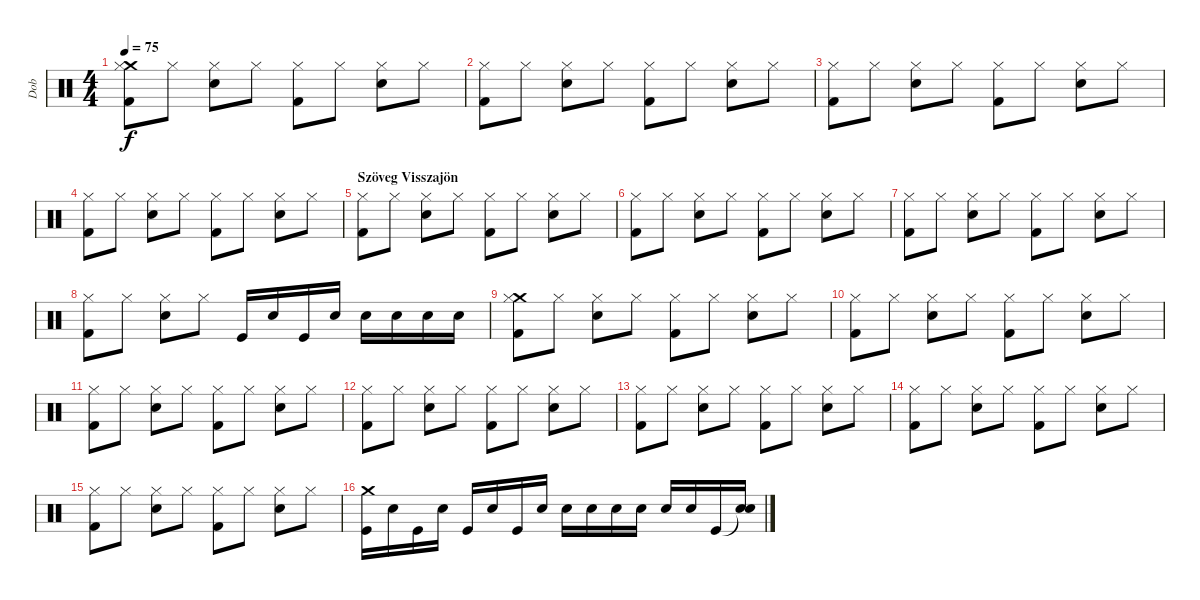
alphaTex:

\track ("Dob" "Dob") {instrument percussion}
\staff {score}
\articulation defaults
\ts (4 4)
\tempo 75
\clef neutral
\ks c
("Crash medium (hit)" "Kick (hit) 2" "Hi-Hat (closed)").8{dy f} "Hi-Hat (closed)".8 ("Snare (hit) 2" "Hi-Hat (closed)").8 "Hi-Hat (closed)".8 ("Kick (hit) 2" "Hi-Hat (closed)").8 "Hi-Hat (closed)".8 ("Snare (hit) 2" "Hi-Hat (closed)").8 "Hi-Hat (closed)".8 |
("Kick (hit) 2" "Hi-Hat (closed)").8 "Hi-Hat (closed)".8 ("Snare (hit) 2" "Hi-Hat (closed)").8 "Hi-Hat (closed)".8 ("Kick (hit) 2" "Hi-Hat (closed)").8 "Hi-Hat (closed)".8 ("Snare (hit) 2" "Hi-Hat (closed)").8 "Hi-Hat (closed)".8 |
("Kick (hit) 2" "Hi-Hat (closed)").8 "Hi-Hat (closed)".8 ("Snare (hit) 2" "Hi-Hat (closed)").8 "Hi-Hat (closed)".8 ("Kick (hit) 2" "Hi-Hat (closed)").8 "Hi-Hat (closed)".8 ("Snare (hit) 2" "Hi-Hat (closed)").8 "Hi-Hat (closed)".8 |
("Kick (hit) 2" "Hi-Hat (closed)").8 "Hi-Hat (closed)".8 ("Snare (hit) 2" "Hi-Hat (closed)").8 "Hi-Hat (closed)".8 ("Kick (hit) 2" "Hi-Hat (closed)").8 "Hi-Hat (closed)".8 ("Snare (hit) 2" "Hi-Hat (closed)").8 "Hi-Hat (closed)".8 |
\section ("" "Szöveg Visszajön")
("Kick (hit) 2" "Hi-Hat (closed)").8 "Hi-Hat (closed)".8 ("Snare (hit) 2" "Hi-Hat (closed)").8 "Hi-Hat (closed)".8 ("Kick (hit) 2" "Hi-Hat (closed)").8 "Hi-Hat (closed)".8 ("Snare (hit) 2" "Hi-Hat (closed)").8 "Hi-Hat (closed)".8 |
("Kick (hit) 2" "Hi-Hat (closed)").8 "Hi-Hat (closed)".8 ("Snare (hit) 2" "Hi-Hat (closed)").8 "Hi-Hat (closed)".8 ("Kick (hit) 2" "Hi-Hat (closed)").8 "Hi-Hat (closed)".8 ("Snare (hit) 2" "Hi-Hat (closed)").8 "Hi-Hat (closed)".8 |
("Kick (hit) 2" "Hi-Hat (closed)").8 "Hi-Hat (closed)".8 ("Snare (hit) 2" "Hi-Hat (closed)").8 "Hi-Hat (closed)".8 ("Kick (hit) 2" "Hi-Hat (closed)").8 "Hi-Hat (closed)".8 ("Snare (hit) 2" "Hi-Hat (closed)").8 "Hi-Hat (closed)".8 |
("Kick (hit) 2" "Hi-Hat (closed)").8 "Hi-Hat (closed)".8 ("Snare (hit) 2" "Hi-Hat (closed)").8 "Hi-Hat (closed)".8 "Kick (hit)".16 "Snare (hit) 2".16 "Kick (hit)".16 "Snare (hit) 2".16 "Snare (hit) 2".16 "Snare (hit) 2".16 "Snare (hit) 2".16 "Snare (hit) 2".16 |
("Crash medium (hit)" "Kick (hit) 2" "Hi-Hat (closed)").8 "Hi-Hat (closed)".8 ("Snare (hit) 2" "Hi-Hat (closed)").8 "Hi-Hat (closed)".8 ("Kick (hit) 2" "Hi-Hat (closed)").8 "Hi-Hat (closed)".8 ("Snare (hit) 2" "Hi-Hat (closed)").8 "Hi-Hat (closed)".8 |
("Kick (hit) 2" "Hi-Hat (closed)").8 "Hi-Hat (closed)".8 ("Snare (hit) 2" "Hi-Hat (closed)").8 "Hi-Hat (closed)".8 ("Kick (hit) 2" "Hi-Hat (closed)").8 "Hi-Hat (closed)".8 ("Snare (hit) 2" "Hi-Hat (closed)").8 "Hi-Hat (closed)".8 |
("Kick (hit) 2" "Hi-Hat (closed)").8 "Hi-Hat (closed)".8 ("Snare (hit) 2" "Hi-Hat (closed)").8 "Hi-Hat (closed)".8 ("Kick (hit) 2" "Hi-Hat (closed)").8 "Hi-Hat (closed)".8 ("Snare (hit) 2" "Hi-Hat (closed)").8 "Hi-Hat (closed)".8 |
("Kick (hit) 2" "Hi-Hat (closed)").8 "Hi-Hat (closed)".8 ("Snare (hit) 2" "Hi-Hat (closed)").8 "Hi-Hat (closed)".8 ("Kick (hit) 2" "Hi-Hat (closed)").8 "Hi-Hat (closed)".8 ("Snare (hit) 2" "Hi-Hat (closed)").8 "Hi-Hat (closed)".8 |
("Kick (hit) 2" "Hi-Hat (closed)").8 "Hi-Hat (closed)".8 ("Snare (hit) 2" "Hi-Hat (closed)").8 "Hi-Hat (closed)".8 ("Kick (hit) 2" "Hi-Hat (closed)").8 "Hi-Hat (closed)".8 ("Snare (hit) 2" "Hi-Hat (closed)").8 "Hi-Hat (closed)".8 |
("Kick (hit) 2" "Hi-Hat (closed)").8 "Hi-Hat (closed)".8 ("Snare (hit) 2" "Hi-Hat (closed)").8 "Hi-Hat (closed)".8 ("Kick (hit) 2" "Hi-Hat (closed)").8 "Hi-Hat (closed)".8 ("Snare (hit) 2" "Hi-Hat (closed)").8 "Hi-Hat (closed)".8 |
("Kick (hit) 2" "Hi-Hat (closed)").8 "Hi-Hat (closed)".8 ("Snare (hit) 2" "Hi-Hat (closed)").8 "Hi-Hat (closed)".8 ("Kick (hit) 2" "Hi-Hat (closed)").8 "Hi-Hat (closed)".8 ("Snare (hit) 2" "Hi-Hat (closed)").8 "Hi-Hat (closed)".8 |
("Crash medium (hit)" "Kick (hit)").16 "Snare (hit) 2".16 "Kick (hit)".16 "Snare (hit) 2".16 "Kick (hit)".16 "Snare (hit) 2".16 "Kick (hit)".16 "Snare (hit) 2".16 "Snare (hit) 2".16 "Snare (hit) 2".16 "Snare (hit) 2".16 "Snare (hit) 2".16 "Snare (hit) 2".16 "Snare (hit) 2".16 "Kick (hit)".16 ("Snare (hit)"{t} "Snare (hit) 2").16
